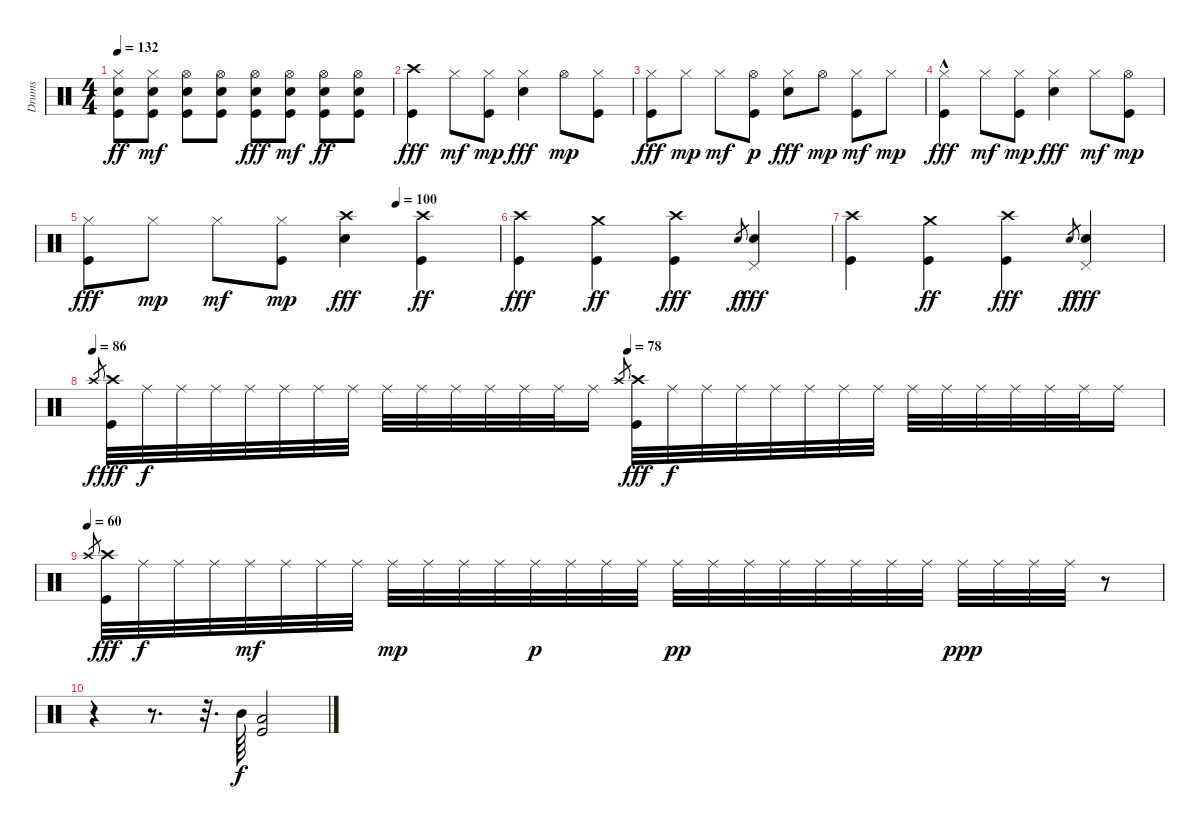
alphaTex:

\track ("Drums" "Drums") {instrument percussion}
\staff {score}
\articulation defaults
\ts (4 4)
\tempo 132
\clef neutral
\ks c
("Hi-Hat (closed)" "Snare (hit) 2" "Kick (hit)").8{dy ff} ("Hi-Hat (closed)" "Snare (hit) 2" "Kick (hit)").8{dy mf} ("Hi-Hat (open)" "Snare (hit) 2" "Kick (hit)").8 ("Hi-Hat (open)" "Snare (hit) 2" "Kick (hit)").8 ("Hi-Hat (open)" "Snare (hit) 2" "Kick (hit)").8{dy fff} ("Hi-Hat (open)" "Snare (hit) 2" "Kick (hit)").8{dy mf} ("Hi-Hat (open)" "Snare (hit) 2" "Kick (hit)").8{dy ff} ("Hi-Hat (open)" "Snare (hit) 2" "Kick (hit)").8 |
("Crash high (hit)" "Kick (hit)").4{dy fff} "Hi-Hat (closed)".8{dy mf} ("Hi-Hat (closed)" "Kick (hit)").8{dy mp} ("Hi-Hat (closed)" "Snare (hit) 2").4{dy fff} "Hi-Hat (open)".8{dy mp} ("Hi-Hat (closed)" "Kick (hit)").8 |
("Hi-Hat (closed)" "Kick (hit)").8{dy fff} "Hi-Hat (closed)".8{dy mp} "Hi-Hat (closed)".8{dy mf} ("Hi-Hat (open)" "Kick (hit)").8{dy p} ("Hi-Hat (closed)" "Snare (hit) 2").8{dy fff} "Hi-Hat (open)".8{dy mp} ("Hi-Hat (closed)" "Kick (hit)").8{dy mf} "Hi-Hat (closed)".8{dy mp} |
("Hi-Hat (closed)" "Kick (hit)"{hac}).4{dy fff} "Hi-Hat (closed)".8{dy mf} ("Hi-Hat (closed)" "Kick (hit)").8{dy mp} ("Hi-Hat (closed)" "Snare (hit) 2").4{dy fff} "Hi-Hat (closed)".8{dy mf} ("Hi-Hat (open)" "Kick (hit)").8{dy mp} |
\tempo (100 0.75)
("Hi-Hat (closed)" "Kick (hit)").8{dy fff} "Hi-Hat (closed)".8{dy mp} "Hi-Hat (closed)".8{dy mf} ("Hi-Hat (closed)" "Kick (hit)").8{dy mp} ("Crash high (hit)" "Snare (hit) 2").4{dy fff} ("Crash high (hit)" "Kick (hit)").4{dy ff} |
("Crash high (hit)" "Kick (hit)").4{dy fff} ("Crash medium (hit)" "Kick (hit)").4{dy ff} ("Crash high (hit)" "Kick (hit)").4{dy fff} "Snare (hit) 2".8{gr dy f} ("Pedal Hi-Hat (hit)" "Snare (hit) 2").4{dy fff} |
("Crash high (hit)" "Kick (hit)").4 ("Crash medium (hit)" "Kick (hit)").4{dy ff} ("Crash high (hit)" "Kick (hit)").4{dy fff} "Snare (hit) 2".8{gr dy f} ("Pedal Hi-Hat (hit)" "Snare (hit) 2").4{dy fff} |
\tempo 86
\tempo (78 0.5)
"Crash high (hit)"{sl}.8{gr dy f} ("Crash high (hit)" "Kick (hit)").32{dy fff} "Ride (middle)".32{dy f} "Ride (middle)".32 "Ride (middle)".32 "Ride (middle)".32 "Ride (middle)".32 "Ride (middle)".32 "Ride (middle)".32 "Ride (middle)".32 "Ride (middle)".32 "Ride (middle)".32 "Ride (middle)".32 "Ride (middle)".32 "Ride (middle)".32 "Ride (middle)".16 "Crash high (hit)"{sl}.8{gr} ("Crash high (hit)" "Kick (hit)").32{dy fff} "Ride (middle)".32{dy f} "Ride (middle)".32 "Ride (middle)".32 "Ride (middle)".32 "Ride (middle)".32 "Ride (middle)".32 "Ride (middle)".32 "Ride (middle)".32 "Ride (middle)".32 "Ride (middle)".32 "Ride (middle)".32 "Ride (middle)".32 "Ride (middle)".32 "Ride (middle)".16 |
\tempo (60)
"Crash high (hit)"{sl}.8{gr} ("Crash high (hit)" "Kick (hit)").32{dy fff} "Ride (middle)".32{dy f} "Ride (middle)".32 "Ride (middle)".32 "Ride (middle)".32{dy mf} "Ride (middle)".32 "Ride (middle)".32 "Ride (middle)".32 "Ride (middle)".32{dy mp} "Ride (middle)".32 "Ride (middle)".32 "Ride (middle)".32 "Ride (middle)".32{dy p} "Ride (middle)".32 "Ride (middle)".32 "Ride (middle)".32 "Ride (middle)".32{dy pp} "Ride (middle)".32 "Ride (middle)".32 "Ride (middle)".32 "Ride (middle)".32 "Ride (middle)".32 "Ride (middle)".32 "Ride (middle)".32 "Ride (middle)".32{dy ppp} "Ride (middle)".32 "Ride (middle)".32 "Ride (middle)".32 r.8 |
r.4 r.8{d} r.32{d} "Mid Tom (hit)".64{dy f} ("Low Tom (hit)" "Kick (hit)").2
